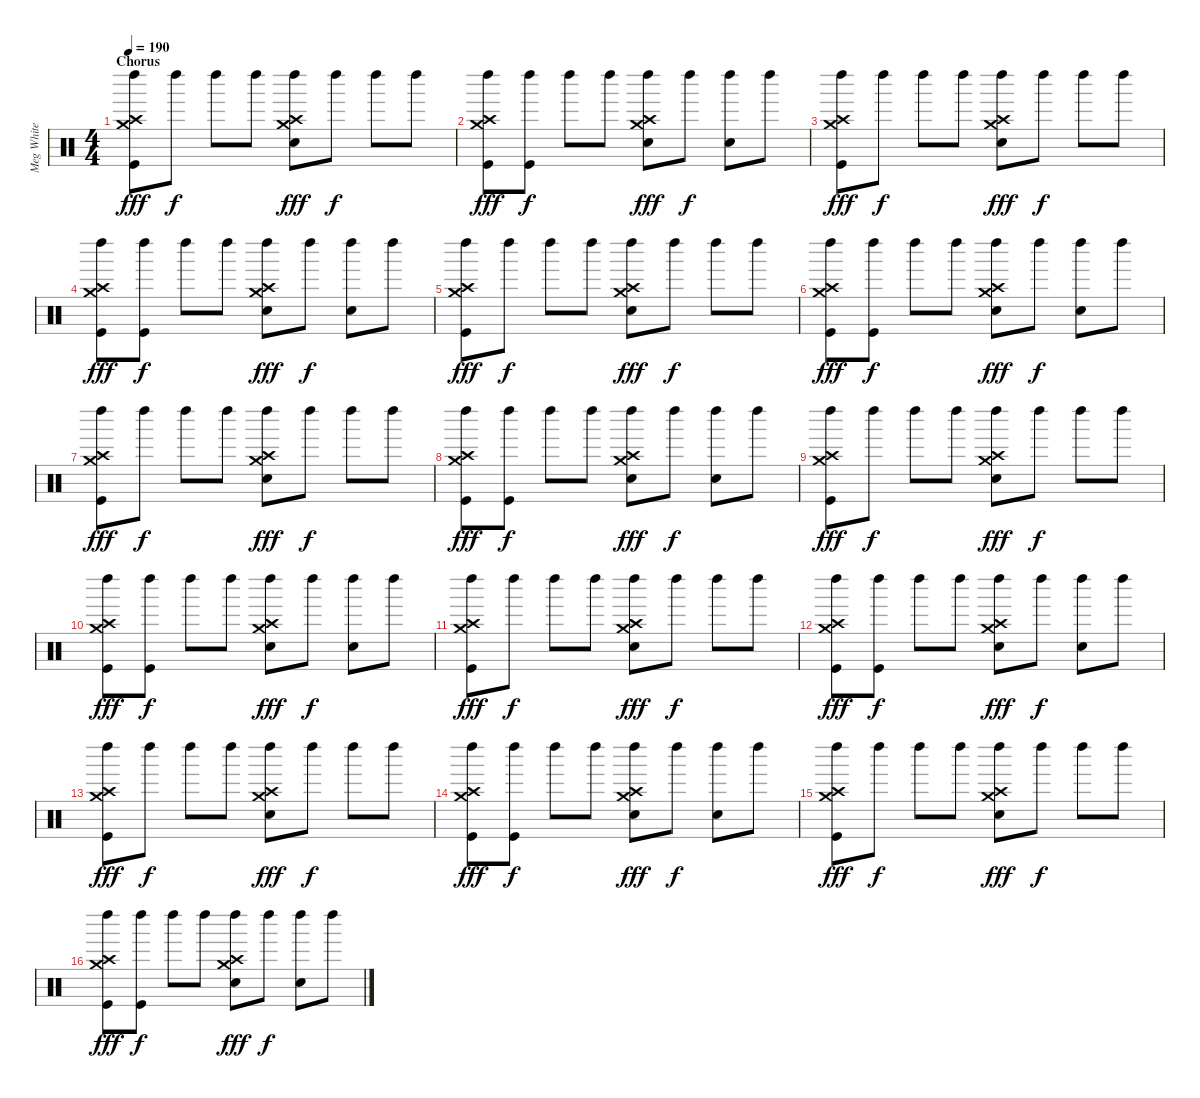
\track ("Meg White" "Meg White") {instrument percussion}
\staff {score}
\articulation defaults
\ts (4 4)
\section ("" "Chorus")
\tempo 190
\clef neutral
\ks c
("Crash high (hit)" "Crash medium (hit)" "Kick (hit)" "Left Maraca (hit)").8{dy fff} "Left Maraca (hit)".8{dy f} "Left Maraca (hit)".8 "Left Maraca (hit)".8 ("Crash high (hit)" "Crash medium (hit)" "Snare (hit) 2" "Left Maraca (hit)").8{dy fff} "Left Maraca (hit)".8{dy f} "Left Maraca (hit)".8 "Left Maraca (hit)".8 |
("Crash high (hit)" "Crash medium (hit)" "Kick (hit)" "Left Maraca (hit)").8{dy fff} ("Kick (hit)" "Left Maraca (hit)").8{dy f} "Left Maraca (hit)".8 "Left Maraca (hit)".8 ("Crash high (hit)" "Crash medium (hit)" "Snare (hit) 2" "Left Maraca (hit)").8{dy fff} "Left Maraca (hit)".8{dy f} ("Snare (hit) 2" "Left Maraca (hit)").8 "Left Maraca (hit)".8 |
("Crash high (hit)" "Crash medium (hit)" "Kick (hit)" "Left Maraca (hit)").8{dy fff} "Left Maraca (hit)".8{dy f} "Left Maraca (hit)".8 "Left Maraca (hit)".8 ("Crash high (hit)" "Crash medium (hit)" "Snare (hit) 2" "Left Maraca (hit)").8{dy fff} "Left Maraca (hit)".8{dy f} "Left Maraca (hit)".8 "Left Maraca (hit)".8 |
("Crash high (hit)" "Crash medium (hit)" "Kick (hit)" "Left Maraca (hit)").8{dy fff} ("Kick (hit)" "Left Maraca (hit)").8{dy f} "Left Maraca (hit)".8 "Left Maraca (hit)".8 ("Crash high (hit)" "Crash medium (hit)" "Snare (hit) 2" "Left Maraca (hit)").8{dy fff} "Left Maraca (hit)".8{dy f} ("Snare (hit) 2" "Left Maraca (hit)").8 "Left Maraca (hit)".8 |
("Crash high (hit)" "Crash medium (hit)" "Kick (hit)" "Left Maraca (hit)").8{dy fff} "Left Maraca (hit)".8{dy f} "Left Maraca (hit)".8 "Left Maraca (hit)".8 ("Crash high (hit)" "Crash medium (hit)" "Snare (hit) 2" "Left Maraca (hit)").8{dy fff} "Left Maraca (hit)".8{dy f} "Left Maraca (hit)".8 "Left Maraca (hit)".8 |
("Crash high (hit)" "Crash medium (hit)" "Kick (hit)" "Left Maraca (hit)").8{dy fff} ("Kick (hit)" "Left Maraca (hit)").8{dy f} "Left Maraca (hit)".8 "Left Maraca (hit)".8 ("Crash high (hit)" "Crash medium (hit)" "Snare (hit) 2" "Left Maraca (hit)").8{dy fff} "Left Maraca (hit)".8{dy f} ("Snare (hit) 2" "Left Maraca (hit)").8 "Left Maraca (hit)".8 |
("Crash high (hit)" "Crash medium (hit)" "Kick (hit)" "Left Maraca (hit)").8{dy fff} "Left Maraca (hit)".8{dy f} "Left Maraca (hit)".8 "Left Maraca (hit)".8 ("Crash high (hit)" "Crash medium (hit)" "Snare (hit) 2" "Left Maraca (hit)").8{dy fff} "Left Maraca (hit)".8{dy f} "Left Maraca (hit)".8 "Left Maraca (hit)".8 |
("Crash high (hit)" "Crash medium (hit)" "Kick (hit)" "Left Maraca (hit)").8{dy fff} ("Kick (hit)" "Left Maraca (hit)").8{dy f} "Left Maraca (hit)".8 "Left Maraca (hit)".8 ("Crash high (hit)" "Crash medium (hit)" "Snare (hit) 2" "Left Maraca (hit)").8{dy fff} "Left Maraca (hit)".8{dy f} ("Snare (hit) 2" "Left Maraca (hit)").8 "Left Maraca (hit)".8 |
("Crash high (hit)" "Crash medium (hit)" "Kick (hit)" "Left Maraca (hit)").8{dy fff} "Left Maraca (hit)".8{dy f} "Left Maraca (hit)".8 "Left Maraca (hit)".8 ("Crash high (hit)" "Crash medium (hit)" "Snare (hit) 2" "Left Maraca (hit)").8{dy fff} "Left Maraca (hit)".8{dy f} "Left Maraca (hit)".8 "Left Maraca (hit)".8 |
("Crash high (hit)" "Crash medium (hit)" "Kick (hit)" "Left Maraca (hit)").8{dy fff} ("Kick (hit)" "Left Maraca (hit)").8{dy f} "Left Maraca (hit)".8 "Left Maraca (hit)".8 ("Crash high (hit)" "Crash medium (hit)" "Snare (hit) 2" "Left Maraca (hit)").8{dy fff} "Left Maraca (hit)".8{dy f} ("Snare (hit) 2" "Left Maraca (hit)").8 "Left Maraca (hit)".8 |
("Crash high (hit)" "Crash medium (hit)" "Kick (hit)" "Left Maraca (hit)").8{dy fff} "Left Maraca (hit)".8{dy f} "Left Maraca (hit)".8 "Left Maraca (hit)".8 ("Crash high (hit)" "Crash medium (hit)" "Snare (hit) 2" "Left Maraca (hit)").8{dy fff} "Left Maraca (hit)".8{dy f} "Left Maraca (hit)".8 "Left Maraca (hit)".8 |
("Crash high (hit)" "Crash medium (hit)" "Kick (hit)" "Left Maraca (hit)").8{dy fff} ("Kick (hit)" "Left Maraca (hit)").8{dy f} "Left Maraca (hit)".8 "Left Maraca (hit)".8 ("Crash high (hit)" "Crash medium (hit)" "Snare (hit) 2" "Left Maraca (hit)").8{dy fff} "Left Maraca (hit)".8{dy f} ("Snare (hit) 2" "Left Maraca (hit)").8 "Left Maraca (hit)".8 |
("Crash high (hit)" "Crash medium (hit)" "Kick (hit)" "Left Maraca (hit)").8{dy fff} "Left Maraca (hit)".8{dy f} "Left Maraca (hit)".8 "Left Maraca (hit)".8 ("Crash high (hit)" "Crash medium (hit)" "Snare (hit) 2" "Left Maraca (hit)").8{dy fff} "Left Maraca (hit)".8{dy f} "Left Maraca (hit)".8 "Left Maraca (hit)".8 |
("Crash high (hit)" "Crash medium (hit)" "Kick (hit)" "Left Maraca (hit)").8{dy fff} ("Kick (hit)" "Left Maraca (hit)").8{dy f} "Left Maraca (hit)".8 "Left Maraca (hit)".8 ("Crash high (hit)" "Crash medium (hit)" "Snare (hit) 2" "Left Maraca (hit)").8{dy fff} "Left Maraca (hit)".8{dy f} ("Snare (hit) 2" "Left Maraca (hit)").8 "Left Maraca (hit)".8 |
("Crash high (hit)" "Crash medium (hit)" "Kick (hit)" "Left Maraca (hit)").8{dy fff} "Left Maraca (hit)".8{dy f} "Left Maraca (hit)".8 "Left Maraca (hit)".8 ("Crash high (hit)" "Crash medium (hit)" "Snare (hit) 2" "Left Maraca (hit)").8{dy fff} "Left Maraca (hit)".8{dy f} "Left Maraca (hit)".8 "Left Maraca (hit)".8 |
("Crash high (hit)" "Crash medium (hit)" "Kick (hit)" "Left Maraca (hit)").8{dy fff} ("Kick (hit)" "Left Maraca (hit)").8{dy f} "Left Maraca (hit)".8 "Left Maraca (hit)".8 ("Crash high (hit)" "Crash medium (hit)" "Snare (hit) 2" "Left Maraca (hit)").8{dy fff} "Left Maraca (hit)".8{dy f} ("Snare (hit) 2" "Left Maraca (hit)").8 "Left Maraca (hit)".8
